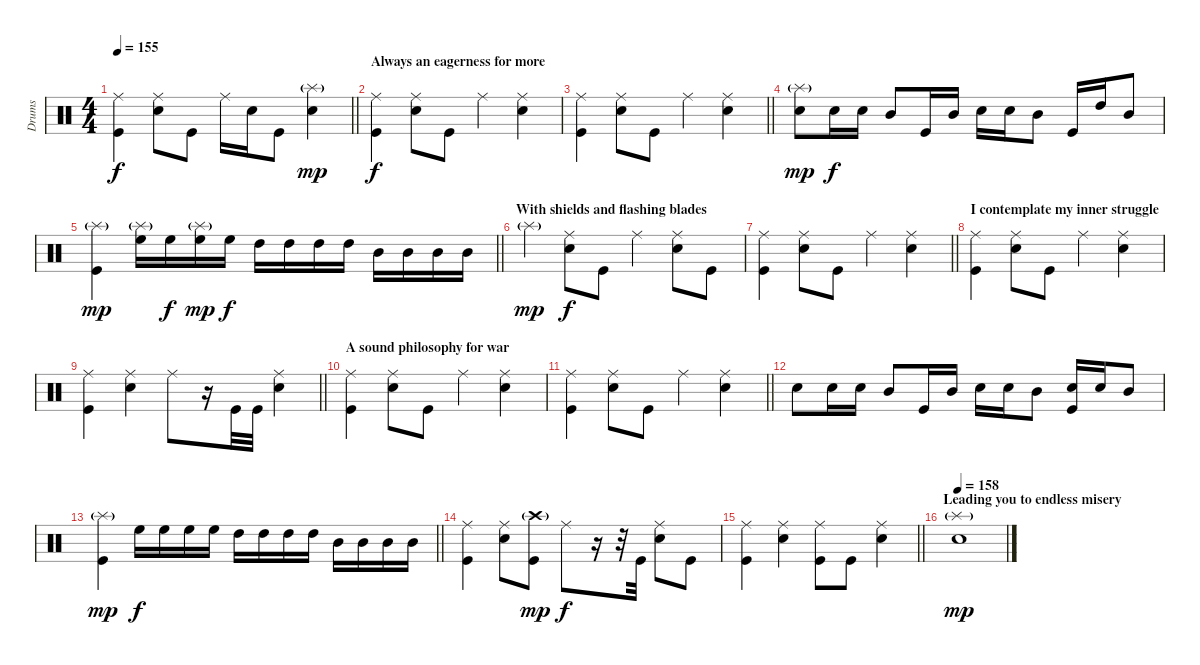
\track ("Drums" "Drums") {instrument percussion}
\staff {score}
\articulation defaults
\ts (4 4)
\tempo 155
\clef neutral
\barLineRight lightlight
\ks c
("Ride (middle)" "Kick (hit)").4{dy f} ("Ride (middle)" "Snare (hit) 2").8 "Kick (hit)".8 "Ride (middle)".16 "Snare (hit) 2".16 "Kick (hit)".8 ("Splash (hit)"{g} "Snare (hit) 2").4{dy mp} |
\section ("" "Always an eagerness for more")
("Ride (middle)" "Kick (hit)").4{dy f} ("Ride (middle)" "Snare (hit) 2").8 "Kick (hit)".8 "Ride (middle)".4 ("Ride (middle)" "Snare (hit) 2").4 |
\barLineRight lightlight
("Ride (middle)" "Kick (hit)").4 ("Ride (middle)" "Snare (hit) 2").8 "Kick (hit)".8 "Ride (middle)".4 ("Ride (middle)" "Snare (hit) 2").4 |
("Splash (hit)"{g} "Snare (hit) 2").8{dy mp} "Snare (hit) 2".16{dy f} "Snare (hit) 2".16 "Mid Tom (hit)".8 "Kick (hit)".16 "Mid Tom (hit)".16 "Snare (hit) 2".16 "Snare (hit) 2".16 "Mid Tom (hit)".8 "Kick (hit)".16 "High Tom (hit)".16 "Mid Tom (hit)".8 |
\barLineRight lightlight
("Splash (hit)"{g} "Kick (hit)").4{dy mp} ("Splash (hit)"{g} "High Floor Tom (hit)").16 "High Floor Tom (hit)".16{dy f} ("Splash (hit)"{g} "High Floor Tom (hit)").16{dy mp} "High Floor Tom (hit)".16{dy f} "High Tom (hit)".16 "High Tom (hit)".16 "High Tom (hit)".16 "High Tom (hit)".16 "Mid Tom (hit)".16 "Mid Tom (hit)".16 "Mid Tom (hit)".16 "Mid Tom (hit)".16 |
\section ("" "With shields and flashing blades")
"Splash (hit)"{g}.4{dy mp} ("Ride (middle)" "Snare (hit) 2").8{dy f} "Kick (hit)".8 "Ride (middle)".4 ("Ride (middle)" "Snare (hit) 2").8 "Kick (hit)".8 |
\barLineRight lightlight
("Ride (middle)" "Kick (hit)").4 ("Ride (middle)" "Snare (hit) 2").8 "Kick (hit)".8 "Ride (middle)".4 ("Ride (middle)" "Snare (hit) 2").4 |
\section ("" "I contemplate my inner struggle")
("Ride (middle)" "Kick (hit)").4 ("Ride (middle)" "Snare (hit) 2").8 "Kick (hit)".8 "Ride (middle)".4 ("Ride (middle)" "Snare (hit) 2").4 |
\barLineRight lightlight
("Ride (middle)" "Kick (hit)").4 ("Ride (middle)" "Snare (hit) 2").4 "Ride (middle)".8 r.16 "Kick (hit)".32 "Kick (hit)".32 ("Ride (middle)" "Snare (hit) 2").4 |
\section ("" "A sound philosophy for war")
("Ride (middle)" "Kick (hit)").4 ("Ride (middle)" "Snare (hit) 2").8 "Kick (hit)".8 "Ride (middle)".4 ("Ride (middle)" "Snare (hit) 2").4 |
\barLineRight lightlight
("Ride (middle)" "Kick (hit)").4 ("Ride (middle)" "Snare (hit) 2").8 "Kick (hit)".8 "Ride (middle)".4 ("Ride (middle)" "Snare (hit) 2").4 |
"Snare (hit) 2".8 "Snare (hit) 2".16 "Snare (hit) 2".16 "Mid Tom (hit)".8 "Kick (hit)".16 "Mid Tom (hit)".16 "Snare (hit) 2".16 "Snare (hit) 2".16 "Mid Tom (hit)".8 ("Snare (hit) 2" "Kick (hit)").16 "Snare (hit) 2".16 "Mid Tom (hit)".8 |
\barLineRight lightlight
("Splash (hit)"{g} "Kick (hit)").4{dy mp} "High Floor Tom (hit)".16{dy f} "High Floor Tom (hit)".16 "High Floor Tom (hit)".16 "High Floor Tom (hit)".16 "High Tom (hit)".16 "High Tom (hit)".16 "High Tom (hit)".16 "High Tom (hit)".16 "Mid Tom (hit)".16 "Mid Tom (hit)".16 "Mid Tom (hit)".16 "Mid Tom (hit)".16 |
("Ride (middle)" "Kick (hit)").4 ("Ride (middle)" "Snare (hit) 2").8 ("Crash high (hit)"{g} "Kick (hit)").8{dy mp} "Ride (middle)".8{dy f} r.16 r.32 "Kick (hit)".32 ("Ride (middle)" "Snare (hit) 2").8 "Kick (hit)".8 |
\barLineRight lightlight
("Ride (middle)" "Kick (hit)").4 ("Ride (middle)" "Snare (hit) 2").4 ("Ride (middle)" "Kick (hit)").8 "Kick (hit)".8 ("Ride (middle)" "Snare (hit) 2").4 |
\section ("" "Leading you to endless misery")
\tempo 160
\tempo 158
("Splash (hit)"{g} "Snare (hit) 2").1{dy mp}
